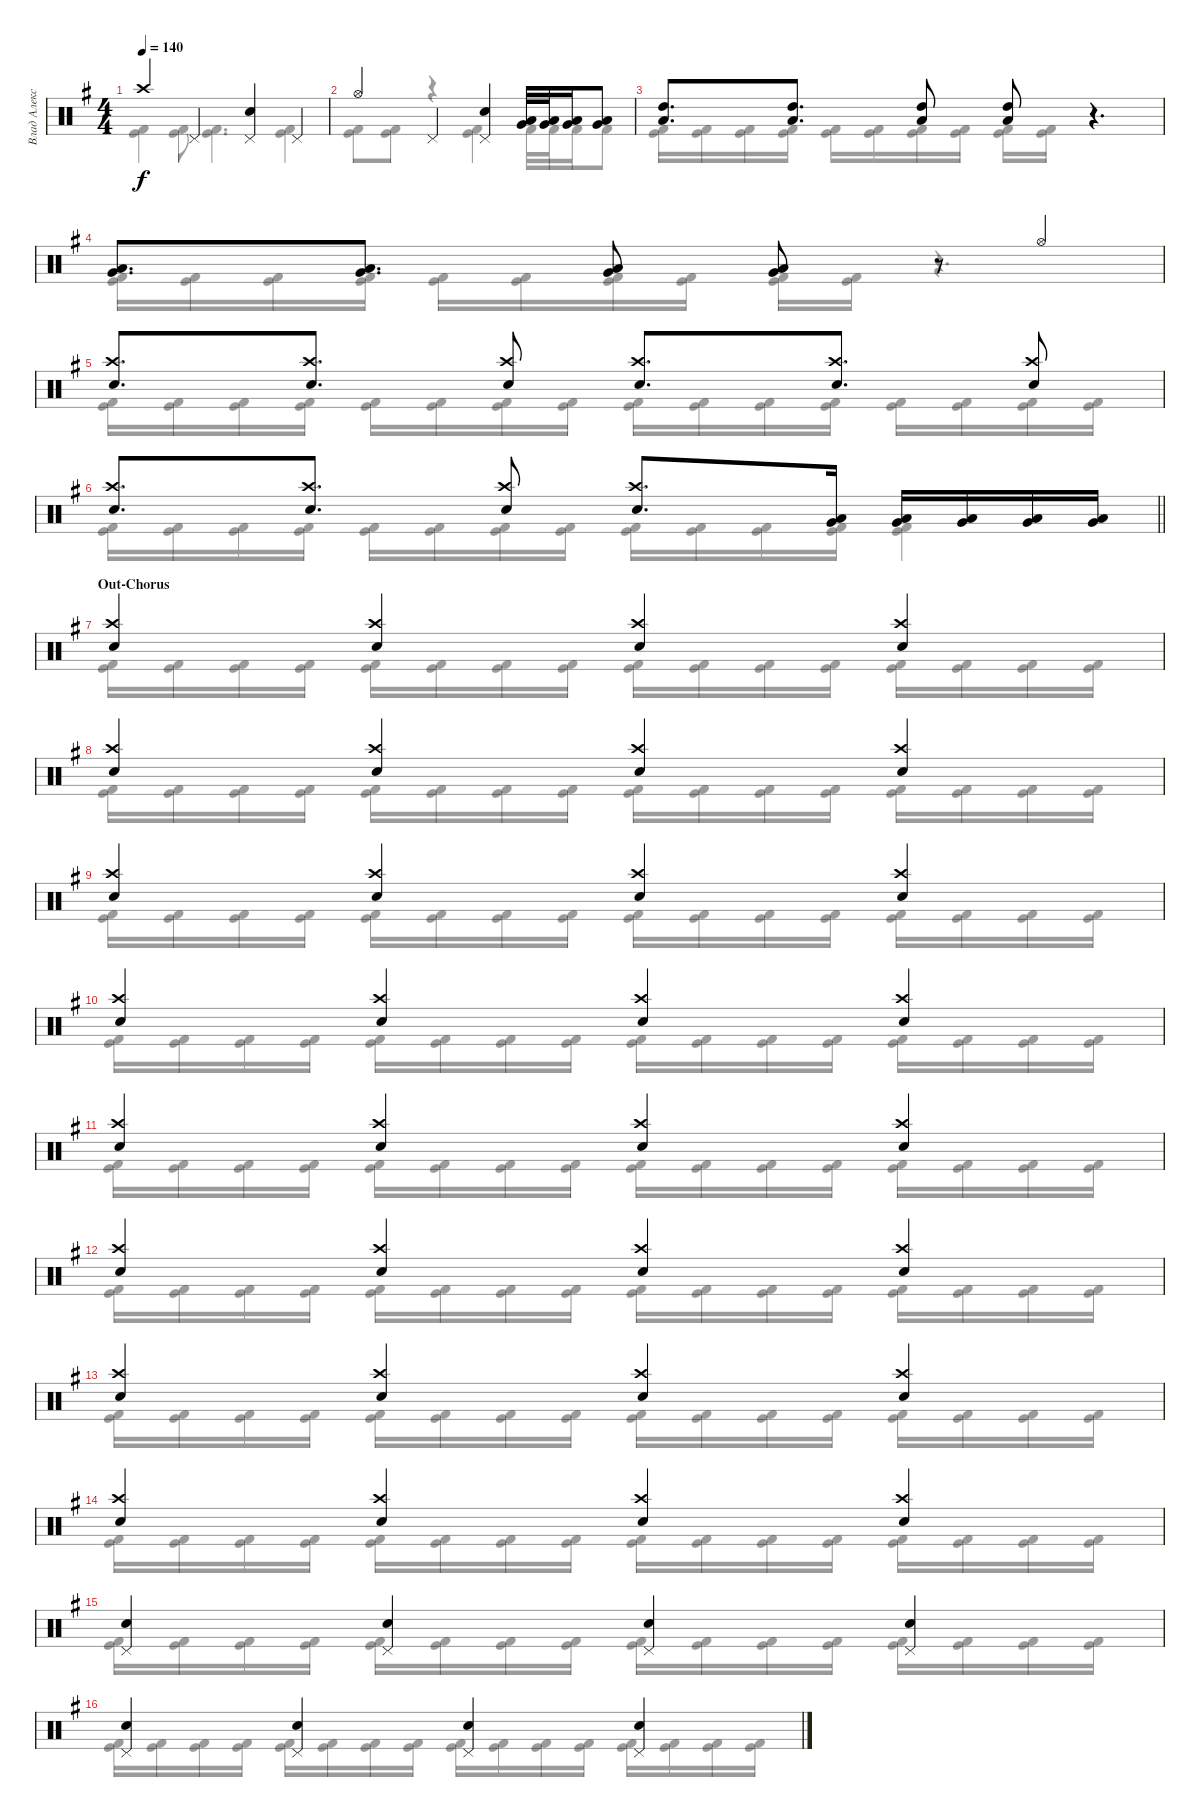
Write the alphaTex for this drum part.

\track ("Влад Алексеенко" "Влад Алекс") {instrument percussion}
\staff {score}
\articulation defaults
\voice
\ts (4 4)
\tempo 140
\clef neutral
\ks g "Crash high (hit)".4{dy f} "Pedal Hi-Hat (hit)".4
("Electric Snare (hit)" "Pedal Hi-Hat (hit)").4 "Pedal Hi-Hat (hit)".4 |
"Hi-Hat (open)".4 "Pedal Hi-Hat (hit)".4 ("Electric Snare (hit)" "Pedal Hi-Hat (hit)").4 ("Low Tom (hit)" "Very Low Tom (hit)").32 ("Very Low Tom (hit)" "Low Tom (hit)").32 ("Low Tom (hit)" "Very Low Tom (hit)").16 ("Low Tom (hit)" "Very Low Tom (hit)").8 |
("High Tom (hit)" "Low Tom (hit)").8{d} ("High Tom (hit)" "Low Tom (hit)").8{d} ("High Tom (hit)" "Low Tom (hit)").8 ("High Tom (hit)" "Low Tom (hit)").8 r.4{d} |
("Very Low Tom (hit)" "Low Tom (hit)").8{d} ("Very Low Tom (hit)" "Low Tom (hit)").8{d} ("Very Low Tom (hit)" "Low Tom (hit)").8 ("Very Low Tom (hit)" "Low Tom (hit)").8 r.8 "Hi-Hat (open)".4 |
("Electric Snare (hit)" "Crash high (hit)").8{d} ("Electric Snare (hit)" "Crash high (hit)").8{d} ("Electric Snare (hit)" "Crash high (hit)").8 ("Electric Snare (hit)" "Crash high (hit)").8{d} ("Electric Snare (hit)" "Crash high (hit)").8{d} ("Electric Snare (hit)" "Crash high (hit)").8 |
\barLineRight lightlight
("Electric Snare (hit)" "Crash high (hit)").8{d} ("Electric Snare (hit)" "Crash high (hit)").8{d} ("Electric Snare (hit)" "Crash high (hit)").8 ("Electric Snare (hit)" "Crash high (hit)").8{d} ("Low Tom (hit)" "Very Low Tom (hit)").16 ("Low Tom (hit)" "Very Low Tom (hit)").16 ("Low Tom (hit)" "Very Low Tom (hit)").16 ("Low Tom (hit)" "Very Low Tom (hit)").16 ("Low Tom (hit)" "Very Low Tom (hit)").16 |
\section ("" "Out-Chorus")
("Electric Snare (hit)" "Crash high (hit)").4 ("Electric Snare (hit)" "Crash high (hit)").4 ("Electric Snare (hit)" "Crash high (hit)").4 ("Electric Snare (hit)" "Crash high (hit)").4 |
("Electric Snare (hit)" "Crash high (hit)").4 ("Electric Snare (hit)" "Crash high (hit)").4 ("Electric Snare (hit)" "Crash high (hit)").4 ("Electric Snare (hit)" "Crash high (hit)").4 |
("Electric Snare (hit)" "Crash high (hit)").4 ("Electric Snare (hit)" "Crash high (hit)").4 ("Electric Snare (hit)" "Crash high (hit)").4 ("Electric Snare (hit)" "Crash high (hit)").4 |
("Electric Snare (hit)" "Crash high (hit)").4 ("Electric Snare (hit)" "Crash high (hit)").4 ("Electric Snare (hit)" "Crash high (hit)").4 ("Electric Snare (hit)" "Crash high (hit)").4 |
("Electric Snare (hit)" "Crash high (hit)").4 ("Electric Snare (hit)" "Crash high (hit)").4 ("Electric Snare (hit)" "Crash high (hit)").4 ("Electric Snare (hit)" "Crash high (hit)").4 |
("Electric Snare (hit)" "Crash high (hit)").4 ("Electric Snare (hit)" "Crash high (hit)").4 ("Electric Snare (hit)" "Crash high (hit)").4 ("Electric Snare (hit)" "Crash high (hit)").4 |
("Electric Snare (hit)" "Crash high (hit)").4 ("Electric Snare (hit)" "Crash high (hit)").4 ("Electric Snare (hit)" "Crash high (hit)").4 ("Electric Snare (hit)" "Crash high (hit)").4 |
("Electric Snare (hit)" "Crash high (hit)").4 ("Electric Snare (hit)" "Crash high (hit)").4 ("Electric Snare (hit)" "Crash high (hit)").4 ("Electric Snare (hit)" "Crash high (hit)").4 |
("Electric Snare (hit)" "Pedal Hi-Hat (hit)").4 ("Electric Snare (hit)" "Pedal Hi-Hat (hit)").4 ("Electric Snare (hit)" "Pedal Hi-Hat (hit)").4 ("Electric Snare (hit)" "Pedal Hi-Hat (hit)").4 |
("Electric Snare (hit)" "Pedal Hi-Hat (hit)").4 ("Electric Snare (hit)" "Pedal Hi-Hat (hit)").4 ("Electric Snare (hit)" "Pedal Hi-Hat (hit)").4 ("Electric Snare (hit)" "Pedal Hi-Hat (hit)").4
\voice
\clef neutral
\ottava regular
\simile none
\ks g
("Kick (hit) 2" "Kick (hit)").4{dy f} ("Kick (hit) 2" "Kick (hit)").8 ("Kick (hit) 2" "Kick (hit)").4{d} ("Kick (hit) 2" "Kick (hit)").4 |
("Kick (hit) 2" "Kick (hit)").8 ("Kick (hit) 2" "Kick (hit)").8 r.4 ("Kick (hit) 2" "Kick (hit)").4 "Kick (hit) 2".32 "Kick (hit) 2".32 "Kick (hit) 2".16 "Kick (hit) 2".8 |
("Kick (hit) 2" "Kick (hit)").16 ("Kick (hit) 2" "Kick (hit)").16 ("Kick (hit) 2" "Kick (hit)").16 ("Kick (hit) 2" "Kick (hit)").16 ("Kick (hit) 2" "Kick (hit)").16 ("Kick (hit) 2" "Kick (hit)").16 ("Kick (hit) 2" "Kick (hit)").16 ("Kick (hit) 2" "Kick (hit)").16 ("Kick (hit) 2" "Kick (hit)").16 ("Kick (hit) 2" "Kick (hit)").16 r.4{d} |
("Kick (hit) 2" "Kick (hit)").16 ("Kick (hit) 2" "Kick (hit)").16 ("Kick (hit) 2" "Kick (hit)").16 ("Kick (hit) 2" "Kick (hit)").16 ("Kick (hit) 2" "Kick (hit)").16 ("Kick (hit) 2" "Kick (hit)").16 ("Kick (hit) 2" "Kick (hit)").16 ("Kick (hit) 2" "Kick (hit)").16 ("Kick (hit) 2" "Kick (hit)").16 ("Kick (hit) 2" "Kick (hit)").16 r.4{d} |
("Kick (hit) 2" "Kick (hit)").16 ("Kick (hit) 2" "Kick (hit)").16 ("Kick (hit) 2" "Kick (hit)").16 ("Kick (hit) 2" "Kick (hit)").16 ("Kick (hit) 2" "Kick (hit)").16 ("Kick (hit) 2" "Kick (hit)").16 ("Kick (hit) 2" "Kick (hit)").16 ("Kick (hit) 2" "Kick (hit)").16 ("Kick (hit) 2" "Kick (hit)").16 ("Kick (hit) 2" "Kick (hit)").16 ("Kick (hit) 2" "Kick (hit)").16 ("Kick (hit) 2" "Kick (hit)").16 ("Kick (hit) 2" "Kick (hit)").16 ("Kick (hit) 2" "Kick (hit)").16 ("Kick (hit) 2" "Kick (hit)").16 ("Kick (hit) 2" "Kick (hit)").16 |
\barLineRight lightlight
("Kick (hit) 2" "Kick (hit)").16 ("Kick (hit) 2" "Kick (hit)").16 ("Kick (hit) 2" "Kick (hit)").16 ("Kick (hit) 2" "Kick (hit)").16 ("Kick (hit) 2" "Kick (hit)").16 ("Kick (hit) 2" "Kick (hit)").16 ("Kick (hit) 2" "Kick (hit)").16 ("Kick (hit) 2" "Kick (hit)").16 ("Kick (hit) 2" "Kick (hit)").16 ("Kick (hit) 2" "Kick (hit)").16 ("Kick (hit) 2" "Kick (hit)").16 ("Kick (hit) 2" "Kick (hit)").16 ("Kick (hit) 2" "Kick (hit)").4 |
("Kick (hit) 2" "Kick (hit)").16 ("Kick (hit) 2" "Kick (hit)").16 ("Kick (hit) 2" "Kick (hit)").16 ("Kick (hit) 2" "Kick (hit)").16 ("Kick (hit) 2" "Kick (hit)").16 ("Kick (hit) 2" "Kick (hit)").16 ("Kick (hit) 2" "Kick (hit)").16 ("Kick (hit) 2" "Kick (hit)").16 ("Kick (hit) 2" "Kick (hit)").16 ("Kick (hit) 2" "Kick (hit)").16 ("Kick (hit) 2" "Kick (hit)").16 ("Kick (hit) 2" "Kick (hit)").16 ("Kick (hit) 2" "Kick (hit)").16 ("Kick (hit) 2" "Kick (hit)").16 ("Kick (hit) 2" "Kick (hit)").16 ("Kick (hit) 2" "Kick (hit)").16 |
("Kick (hit) 2" "Kick (hit)").16 ("Kick (hit) 2" "Kick (hit)").16 ("Kick (hit) 2" "Kick (hit)").16 ("Kick (hit) 2" "Kick (hit)").16 ("Kick (hit) 2" "Kick (hit)").16 ("Kick (hit) 2" "Kick (hit)").16 ("Kick (hit) 2" "Kick (hit)").16 ("Kick (hit) 2" "Kick (hit)").16 ("Kick (hit) 2" "Kick (hit)").16 ("Kick (hit) 2" "Kick (hit)").16 ("Kick (hit) 2" "Kick (hit)").16 ("Kick (hit) 2" "Kick (hit)").16 ("Kick (hit) 2" "Kick (hit)").16 ("Kick (hit) 2" "Kick (hit)").16 ("Kick (hit) 2" "Kick (hit)").16 ("Kick (hit) 2" "Kick (hit)").16 |
("Kick (hit) 2" "Kick (hit)").16 ("Kick (hit) 2" "Kick (hit)").16 ("Kick (hit) 2" "Kick (hit)").16 ("Kick (hit) 2" "Kick (hit)").16 ("Kick (hit) 2" "Kick (hit)").16 ("Kick (hit) 2" "Kick (hit)").16 ("Kick (hit) 2" "Kick (hit)").16 ("Kick (hit) 2" "Kick (hit)").16 ("Kick (hit) 2" "Kick (hit)").16 ("Kick (hit) 2" "Kick (hit)").16 ("Kick (hit) 2" "Kick (hit)").16 ("Kick (hit) 2" "Kick (hit)").16 ("Kick (hit) 2" "Kick (hit)").16 ("Kick (hit) 2" "Kick (hit)").16 ("Kick (hit) 2" "Kick (hit)").16 ("Kick (hit) 2" "Kick (hit)").16 |
("Kick (hit) 2" "Kick (hit)").16 ("Kick (hit) 2" "Kick (hit)").16 ("Kick (hit) 2" "Kick (hit)").16 ("Kick (hit) 2" "Kick (hit)").16 ("Kick (hit) 2" "Kick (hit)").16 ("Kick (hit) 2" "Kick (hit)").16 ("Kick (hit) 2" "Kick (hit)").16 ("Kick (hit) 2" "Kick (hit)").16 ("Kick (hit) 2" "Kick (hit)").16 ("Kick (hit) 2" "Kick (hit)").16 ("Kick (hit) 2" "Kick (hit)").16 ("Kick (hit) 2" "Kick (hit)").16 ("Kick (hit) 2" "Kick (hit)").16 ("Kick (hit) 2" "Kick (hit)").16 ("Kick (hit) 2" "Kick (hit)").16 ("Kick (hit) 2" "Kick (hit)").16 |
("Kick (hit) 2" "Kick (hit)").16 ("Kick (hit) 2" "Kick (hit)").16 ("Kick (hit) 2" "Kick (hit)").16 ("Kick (hit) 2" "Kick (hit)").16 ("Kick (hit) 2" "Kick (hit)").16 ("Kick (hit) 2" "Kick (hit)").16 ("Kick (hit) 2" "Kick (hit)").16 ("Kick (hit) 2" "Kick (hit)").16 ("Kick (hit) 2" "Kick (hit)").16 ("Kick (hit) 2" "Kick (hit)").16 ("Kick (hit) 2" "Kick (hit)").16 ("Kick (hit) 2" "Kick (hit)").16 ("Kick (hit) 2" "Kick (hit)").16 ("Kick (hit) 2" "Kick (hit)").16 ("Kick (hit) 2" "Kick (hit)").16 ("Kick (hit) 2" "Kick (hit)").16 |
("Kick (hit) 2" "Kick (hit)").16 ("Kick (hit) 2" "Kick (hit)").16 ("Kick (hit) 2" "Kick (hit)").16 ("Kick (hit) 2" "Kick (hit)").16 ("Kick (hit) 2" "Kick (hit)").16 ("Kick (hit) 2" "Kick (hit)").16 ("Kick (hit) 2" "Kick (hit)").16 ("Kick (hit) 2" "Kick (hit)").16 ("Kick (hit) 2" "Kick (hit)").16 ("Kick (hit) 2" "Kick (hit)").16 ("Kick (hit) 2" "Kick (hit)").16 ("Kick (hit) 2" "Kick (hit)").16 ("Kick (hit) 2" "Kick (hit)").16 ("Kick (hit) 2" "Kick (hit)").16 ("Kick (hit) 2" "Kick (hit)").16 ("Kick (hit) 2" "Kick (hit)").16 |
("Kick (hit) 2" "Kick (hit)").16 ("Kick (hit) 2" "Kick (hit)").16 ("Kick (hit) 2" "Kick (hit)").16 ("Kick (hit) 2" "Kick (hit)").16 ("Kick (hit) 2" "Kick (hit)").16 ("Kick (hit) 2" "Kick (hit)").16 ("Kick (hit) 2" "Kick (hit)").16 ("Kick (hit) 2" "Kick (hit)").16 ("Kick (hit) 2" "Kick (hit)").16 ("Kick (hit) 2" "Kick (hit)").16 ("Kick (hit) 2" "Kick (hit)").16 ("Kick (hit) 2" "Kick (hit)").16 ("Kick (hit) 2" "Kick (hit)").16 ("Kick (hit) 2" "Kick (hit)").16 ("Kick (hit) 2" "Kick (hit)").16 ("Kick (hit) 2" "Kick (hit)").16 |
("Kick (hit) 2" "Kick (hit)").16 ("Kick (hit) 2" "Kick (hit)").16 ("Kick (hit) 2" "Kick (hit)").16 ("Kick (hit) 2" "Kick (hit)").16 ("Kick (hit) 2" "Kick (hit)").16 ("Kick (hit) 2" "Kick (hit)").16 ("Kick (hit) 2" "Kick (hit)").16 ("Kick (hit) 2" "Kick (hit)").16 ("Kick (hit) 2" "Kick (hit)").16 ("Kick (hit) 2" "Kick (hit)").16 ("Kick (hit) 2" "Kick (hit)").16 ("Kick (hit) 2" "Kick (hit)").16 ("Kick (hit) 2" "Kick (hit)").16 ("Kick (hit) 2" "Kick (hit)").16 ("Kick (hit) 2" "Kick (hit)").16 ("Kick (hit) 2" "Kick (hit)").16 |
("Kick (hit) 2" "Kick (hit)").16 ("Kick (hit) 2" "Kick (hit)").16 ("Kick (hit) 2" "Kick (hit)").16 ("Kick (hit) 2" "Kick (hit)").16 ("Kick (hit) 2" "Kick (hit)").16 ("Kick (hit) 2" "Kick (hit)").16 ("Kick (hit) 2" "Kick (hit)").16 ("Kick (hit) 2" "Kick (hit)").16 ("Kick (hit) 2" "Kick (hit)").16 ("Kick (hit) 2" "Kick (hit)").16 ("Kick (hit) 2" "Kick (hit)").16 ("Kick (hit) 2" "Kick (hit)").16 ("Kick (hit) 2" "Kick (hit)").16 ("Kick (hit) 2" "Kick (hit)").16 ("Kick (hit) 2" "Kick (hit)").16 ("Kick (hit) 2" "Kick (hit)").16 |
("Kick (hit) 2" "Kick (hit)").16 ("Kick (hit) 2" "Kick (hit)").16 ("Kick (hit) 2" "Kick (hit)").16 ("Kick (hit) 2" "Kick (hit)").16 ("Kick (hit) 2" "Kick (hit)").16 ("Kick (hit) 2" "Kick (hit)").16 ("Kick (hit) 2" "Kick (hit)").16 ("Kick (hit) 2" "Kick (hit)").16 ("Kick (hit) 2" "Kick (hit)").16 ("Kick (hit) 2" "Kick (hit)").16 ("Kick (hit) 2" "Kick (hit)").16 ("Kick (hit) 2" "Kick (hit)").16 ("Kick (hit) 2" "Kick (hit)").16 ("Kick (hit) 2" "Kick (hit)").16 ("Kick (hit) 2" "Kick (hit)").16 ("Kick (hit) 2" "Kick (hit)").16
